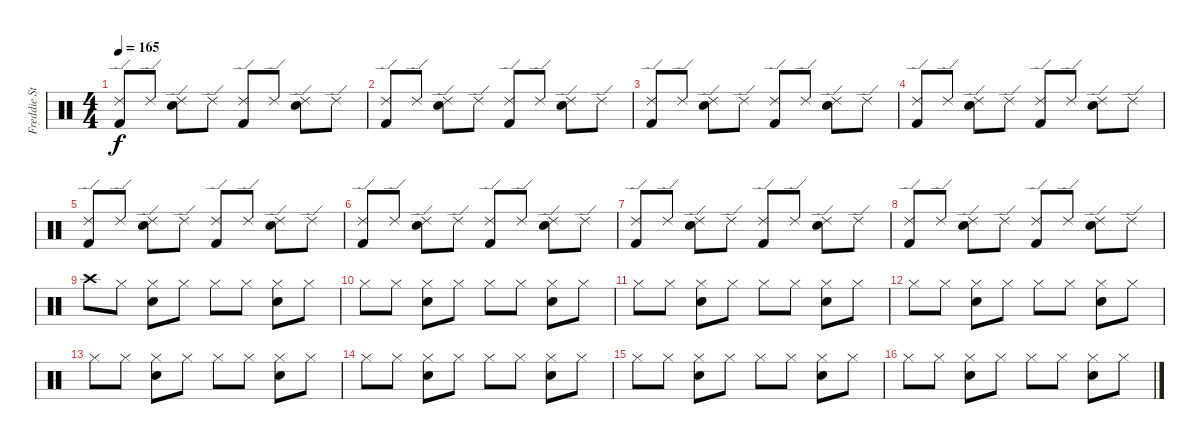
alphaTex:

\track ("Freddie Strauks" "Freddie St") {instrument percussion}
\staff {score}
\articulation defaults
\ts (4 4)
\tempo 165
\clef neutral
\ks c
("Ride (edge) 2" "Kick (hit) 2").8{dy f} "Ride (edge) 2".8 ("Ride (edge) 2" "Snare (hit) 2").8 "Ride (edge) 2".8 ("Ride (edge) 2" "Kick (hit) 2").8 "Ride (edge) 2".8 ("Ride (edge) 2" "Snare (hit) 2").8 "Ride (edge) 2".8 |
("Ride (edge) 2" "Kick (hit) 2").8 "Ride (edge) 2".8 ("Ride (edge) 2" "Snare (hit) 2").8 "Ride (edge) 2".8 ("Ride (edge) 2" "Kick (hit) 2").8 "Ride (edge) 2".8 ("Ride (edge) 2" "Snare (hit) 2").8 "Ride (edge) 2".8 |
("Ride (edge) 2" "Kick (hit) 2").8 "Ride (edge) 2".8 ("Ride (edge) 2" "Snare (hit) 2").8 "Ride (edge) 2".8 ("Ride (edge) 2" "Kick (hit) 2").8 "Ride (edge) 2".8 ("Ride (edge) 2" "Snare (hit) 2").8 "Ride (edge) 2".8 |
("Ride (edge) 2" "Kick (hit) 2").8 "Ride (edge) 2".8 ("Ride (edge) 2" "Snare (hit) 2").8 "Ride (edge) 2".8 ("Ride (edge) 2" "Kick (hit) 2").8 "Ride (edge) 2".8 ("Ride (edge) 2" "Snare (hit) 2").8 "Ride (edge) 2".8 |
("Ride (edge) 2" "Kick (hit) 2").8 "Ride (edge) 2".8 ("Ride (edge) 2" "Snare (hit) 2").8 "Ride (edge) 2".8 ("Ride (edge) 2" "Kick (hit) 2").8 "Ride (edge) 2".8 ("Ride (edge) 2" "Snare (hit) 2").8 "Ride (edge) 2".8 |
("Ride (edge) 2" "Kick (hit) 2").8 "Ride (edge) 2".8 ("Ride (edge) 2" "Snare (hit) 2").8 "Ride (edge) 2".8 ("Ride (edge) 2" "Kick (hit) 2").8 "Ride (edge) 2".8 ("Ride (edge) 2" "Snare (hit) 2").8 "Ride (edge) 2".8 |
("Ride (edge) 2" "Kick (hit) 2").8 "Ride (edge) 2".8 ("Ride (edge) 2" "Snare (hit) 2").8 "Ride (edge) 2".8 ("Ride (edge) 2" "Kick (hit) 2").8 "Ride (edge) 2".8 ("Ride (edge) 2" "Snare (hit) 2").8 "Ride (edge) 2".8 |
("Ride (edge) 2" "Kick (hit) 2").8 "Ride (edge) 2".8 ("Ride (edge) 2" "Snare (hit) 2").8 "Ride (edge) 2".8 ("Ride (edge) 2" "Kick (hit) 2").8 "Ride (edge) 2".8 ("Ride (edge) 2" "Snare (hit) 2").8 "Ride (edge) 2".8 |
"Crash high (hit)".8 "Hi-Hat (closed)".8 ("Hi-Hat (closed)" "Snare (hit) 2").8 "Hi-Hat (closed)".8 "Hi-Hat (closed)".8 "Hi-Hat (closed)".8 ("Hi-Hat (closed)" "Snare (hit) 2").8 "Hi-Hat (closed)".8 |
"Hi-Hat (closed)".8 "Hi-Hat (closed)".8 ("Hi-Hat (closed)" "Snare (hit) 2").8 "Hi-Hat (closed)".8 "Hi-Hat (closed)".8 "Hi-Hat (closed)".8 ("Hi-Hat (closed)" "Snare (hit) 2").8 "Hi-Hat (closed)".8 |
"Hi-Hat (closed)".8 "Hi-Hat (closed)".8 ("Hi-Hat (closed)" "Snare (hit) 2").8 "Hi-Hat (closed)".8 "Hi-Hat (closed)".8 "Hi-Hat (closed)".8 ("Hi-Hat (closed)" "Snare (hit) 2").8 "Hi-Hat (closed)".8 |
"Hi-Hat (closed)".8 "Hi-Hat (closed)".8 ("Hi-Hat (closed)" "Snare (hit) 2").8 "Hi-Hat (closed)".8 "Hi-Hat (closed)".8 "Hi-Hat (closed)".8 ("Hi-Hat (closed)" "Snare (hit) 2").8 "Hi-Hat (closed)".8 |
"Hi-Hat (closed)".8 "Hi-Hat (closed)".8 ("Hi-Hat (closed)" "Snare (hit) 2").8 "Hi-Hat (closed)".8 "Hi-Hat (closed)".8 "Hi-Hat (closed)".8 ("Hi-Hat (closed)" "Snare (hit) 2").8 "Hi-Hat (closed)".8 |
"Hi-Hat (closed)".8 "Hi-Hat (closed)".8 ("Hi-Hat (closed)" "Snare (hit) 2").8 "Hi-Hat (closed)".8 "Hi-Hat (closed)".8 "Hi-Hat (closed)".8 ("Hi-Hat (closed)" "Snare (hit) 2").8 "Hi-Hat (closed)".8 |
"Hi-Hat (closed)".8 "Hi-Hat (closed)".8 ("Hi-Hat (closed)" "Snare (hit) 2").8 "Hi-Hat (closed)".8 "Hi-Hat (closed)".8 "Hi-Hat (closed)".8 ("Hi-Hat (closed)" "Snare (hit) 2").8 "Hi-Hat (closed)".8 |
"Hi-Hat (closed)".8 "Hi-Hat (closed)".8 ("Hi-Hat (closed)" "Snare (hit) 2").8 "Hi-Hat (closed)".8 "Hi-Hat (closed)".8 "Hi-Hat (closed)".8 ("Hi-Hat (closed)" "Snare (hit) 2").8 "Hi-Hat (closed)".8
